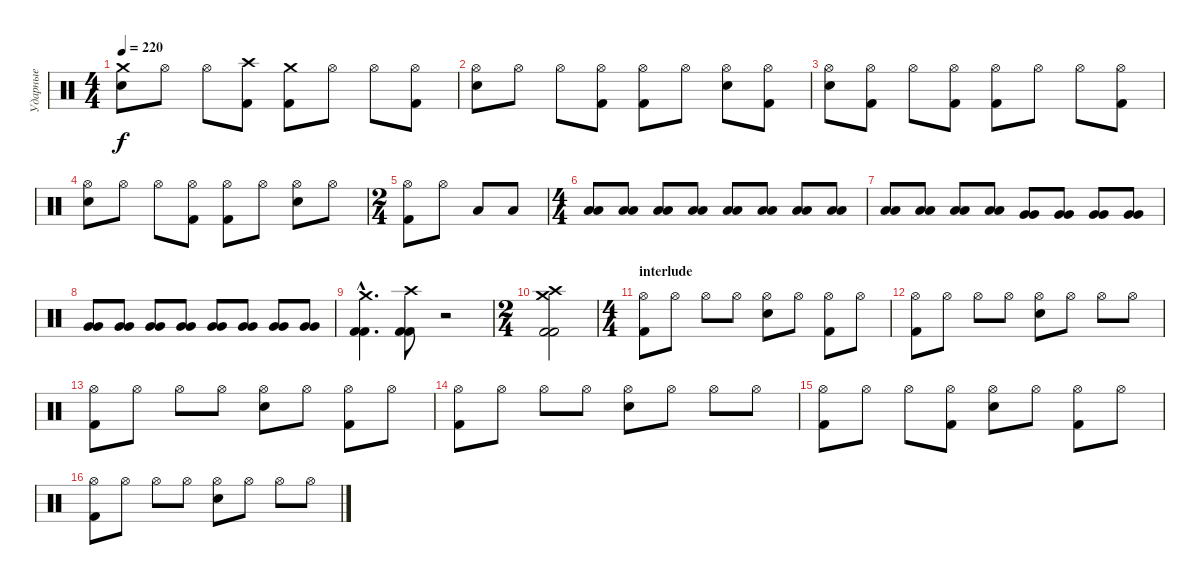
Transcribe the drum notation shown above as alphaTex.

\track ("Ударные" "Ударные") {instrument percussion}
\staff {score}
\articulation defaults
\ts (4 4)
\tempo 220
\clef neutral
\ks c
("Crash medium (hit)" "Electric Snare (hit)").8{dy f} "Hi-Hat (open)".8 "Hi-Hat (open)".8 ("Crash high (hit)" "Kick (hit) 2").8 ("Crash medium (hit)" "Kick (hit) 2").8 "Hi-Hat (open)".8 "Hi-Hat (open)".8 ("Hi-Hat (open)" "Kick (hit) 2").8 |
("Hi-Hat (open)" "Electric Snare (hit)").8 "Hi-Hat (open)".8 "Hi-Hat (open)".8 ("Hi-Hat (open)" "Kick (hit) 2").8 ("Hi-Hat (open)" "Kick (hit) 2").8 "Hi-Hat (open)".8 ("Hi-Hat (open)" "Electric Snare (hit)").8 ("Hi-Hat (open)" "Kick (hit) 2").8 |
("Hi-Hat (open)" "Electric Snare (hit)").8 ("Hi-Hat (open)" "Kick (hit) 2").8 "Hi-Hat (open)".8 ("Hi-Hat (open)" "Kick (hit) 2").8 ("Hi-Hat (open)" "Kick (hit) 2").8 "Hi-Hat (open)".8 "Hi-Hat (open)".8 ("Hi-Hat (open)" "Kick (hit) 2").8 |
("Hi-Hat (open)" "Electric Snare (hit)").8 "Hi-Hat (open)".8 "Hi-Hat (open)".8 ("Hi-Hat (open)" "Kick (hit) 2").8 ("Hi-Hat (open)" "Kick (hit) 2").8 "Hi-Hat (open)".8 ("Hi-Hat (open)" "Electric Snare (hit)").8 "Hi-Hat (open)".8 |
\ts (2 4)
("Hi-Hat (open)" "Kick (hit) 2").8 "Hi-Hat (open)".8 "Low Tom (hit)".8 "Low Tom (hit)".8 |
\ts (4 4)
("Low Tom (hit)" "Low Tom (hit)").8 ("Low Tom (hit)" "Low Tom (hit)").8 ("Low Tom (hit)" "Low Tom (hit)").8 ("Low Tom (hit)" "Low Tom (hit)").8 ("Low Tom (hit)" "Low Tom (hit)").8 ("Low Tom (hit)" "Low Tom (hit)").8 ("Low Tom (hit)" "Low Tom (hit)").8 ("Low Tom (hit)" "Low Tom (hit)").8 |
("Low Tom (hit)" "Low Tom (hit)").8 ("Low Tom (hit)" "Low Tom (hit)").8 ("Low Tom (hit)" "Low Tom (hit)").8 ("Low Tom (hit)" "Low Tom (hit)").8 ("Very Low Tom (hit)" "Very Low Tom (hit)").8 ("Very Low Tom (hit)" "Very Low Tom (hit)").8 ("Very Low Tom (hit)" "Very Low Tom (hit)").8 ("Very Low Tom (hit)" "Very Low Tom (hit)").8 |
("Very Low Tom (hit)" "Very Low Tom (hit)").8 ("Very Low Tom (hit)" "Very Low Tom (hit)").8 ("Very Low Tom (hit)" "Very Low Tom (hit)").8 ("Very Low Tom (hit)" "Very Low Tom (hit)").8 ("Very Low Tom (hit)" "Very Low Tom (hit)").8 ("Very Low Tom (hit)" "Very Low Tom (hit)").8 ("Very Low Tom (hit)" "Very Low Tom (hit)").8 ("Very Low Tom (hit)" "Very Low Tom (hit)").8 |
("Crash medium (hit)"{hac} "Kick (hit) 2"{hac} "Kick (hit) 2"{hac}).4{d} ("Crash high (hit)" "Kick (hit) 2" "Kick (hit) 2").8 r.2 |
\ts (2 4)
("Crash medium (hit)" "Crash high (hit)" "Kick (hit) 2" "Kick (hit) 2").2 |
\ts (4 4)
\section ("" "interlude")
("Hi-Hat (open)" "Kick (hit) 2").8 "Hi-Hat (open)".8 "Hi-Hat (open)".8 "Hi-Hat (open)".8 ("Hi-Hat (open)" "Electric Snare (hit)").8 "Hi-Hat (open)".8 ("Hi-Hat (open)" "Kick (hit) 2").8 "Hi-Hat (open)".8 |
("Hi-Hat (open)" "Kick (hit) 2").8 "Hi-Hat (open)".8 "Hi-Hat (open)".8 "Hi-Hat (open)".8 ("Hi-Hat (open)" "Electric Snare (hit)").8 "Hi-Hat (open)".8 "Hi-Hat (open)".8 "Hi-Hat (open)".8 |
("Hi-Hat (open)" "Kick (hit) 2").8 "Hi-Hat (open)".8 "Hi-Hat (open)".8 "Hi-Hat (open)".8 ("Hi-Hat (open)" "Electric Snare (hit)").8 "Hi-Hat (open)".8 ("Hi-Hat (open)" "Kick (hit) 2").8 "Hi-Hat (open)".8 |
("Hi-Hat (open)" "Kick (hit) 2").8 "Hi-Hat (open)".8 "Hi-Hat (open)".8 "Hi-Hat (open)".8 ("Hi-Hat (open)" "Electric Snare (hit)").8 "Hi-Hat (open)".8 "Hi-Hat (open)".8 "Hi-Hat (open)".8 |
("Hi-Hat (open)" "Kick (hit) 2").8 "Hi-Hat (open)".8 "Hi-Hat (open)".8 ("Hi-Hat (open)" "Kick (hit) 2").8 ("Hi-Hat (open)" "Electric Snare (hit)").8 "Hi-Hat (open)".8 ("Hi-Hat (open)" "Kick (hit) 2").8 "Hi-Hat (open)".8 |
("Hi-Hat (open)" "Kick (hit) 2").8 "Hi-Hat (open)".8 "Hi-Hat (open)".8 "Hi-Hat (open)".8 ("Hi-Hat (open)" "Electric Snare (hit)").8 "Hi-Hat (open)".8 "Hi-Hat (open)".8 "Hi-Hat (open)".8
